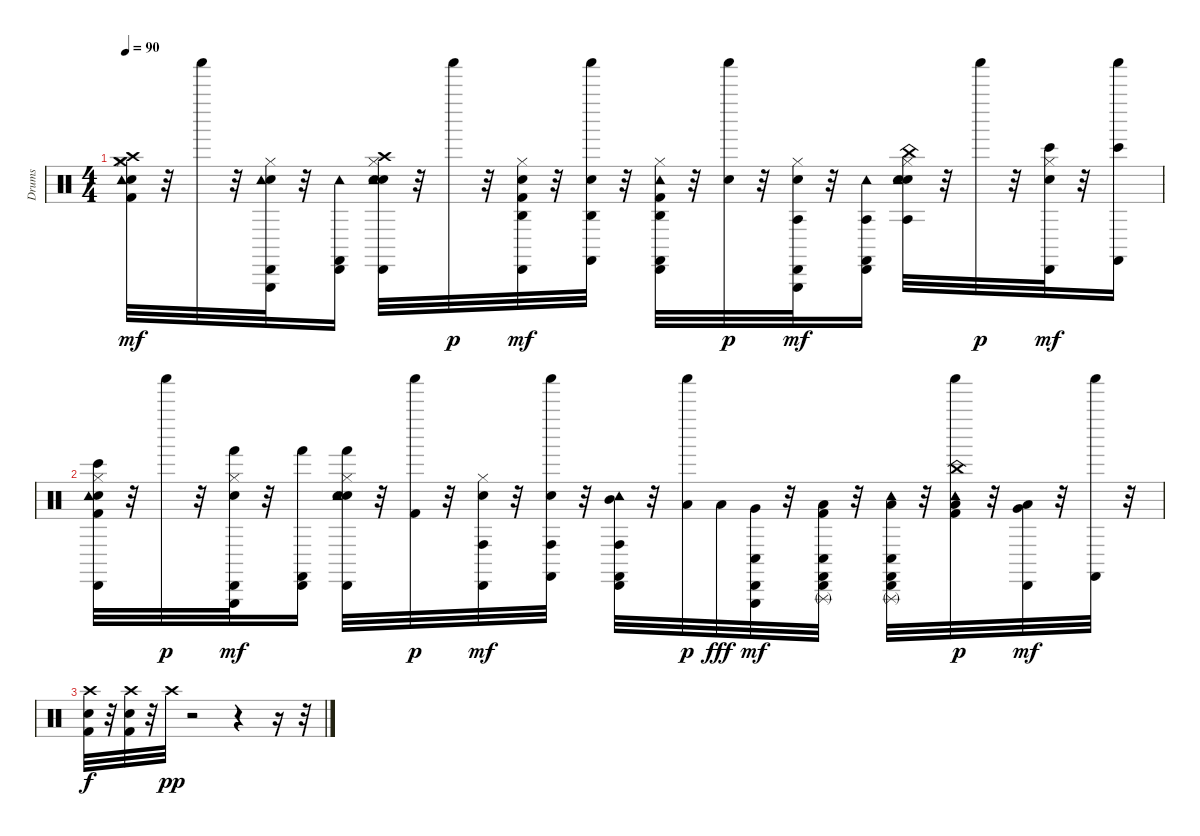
\track ("Drums" "Drums") {instrument percussion}
\staff {score}
\articulation defaults
\ts (4 4)
\tempo 90
\clef neutral
\ks c
("Hi-Hat (closed)" "Kick (hit) 2" "Snare (hit) 2" "Tambourine (hit)" "Crash high (hit)" "Crash medium (hit)").32{dy mf} r.32 "Shaker (hit)".32 r.32 ("Hi-Hat (closed)" "Snare (hit) 2" "Tambourine (hit)" "Cabasa (hit)" "Triangle (hit)").32 r.32 ("Tambourine (hit)" "Cabasa (hit)" "Castanets (hit)").16 ("Electric Snare (hit)" "Hi-Hat (closed)" "Crash high (hit)" "Snare (hit) 2" "Tambourine (hit)" "Cabasa (hit)").32 r.32 "Shaker (hit)".32{dy p} r.32 ("Hi-Hat (closed)" "Kick (hit) 2" "Snare (hit) 2" "Agogo high (hit)" "Cabasa (hit)").32{dy mf} r.32 ("Snare (hit) 2" "Agogo high (hit)" "Shaker (hit)" "Castanets (hit)").32 r.32 ("Hi-Hat (closed)" "Kick (hit) 2" "Agogo high (hit)" "Cabasa (hit)" "Tambourine (hit)" "Castanets (hit)").32 r.32 ("Snare (hit) 2" "Shaker (hit)").32{dy p} r.32 ("Hi-Hat (closed)" "Snare (hit) 2" "Agogo tow (hit)" "Cabasa (hit)" "Triangle (hit)").32{dy mf} r.32 ("Agogo tow (hit)" "Cabasa (hit)" "Tambourine (hit)" "Castanets (hit)").16 ("Electric Snare (hit)" "Hi-Hat (closed)" "China (hit)" "Snare (hit) 2" "Agogo tow (hit)" "Tambourine (hit)").32 r.32 "Shaker (hit)".32{dy p} r.32 ("Hi-Hat (closed)" "Snare (hit) 2" "Bongo High (hit)" "Cabasa (hit)").32{dy mf} r.32 ("Bongo High (hit)" "Shaker (hit)" "Castanets (hit)").16 |
("Hi-Hat (closed)" "Kick (hit) 2" "Snare (hit) 2" "Bongo High (hit)" "Cabasa (hit)" "Tambourine (hit)").32 r.32 "Shaker (hit)".32{dy p} r.32 ("Hi-Hat (closed)" "Snare (hit) 2" "Hand (hit)" "Cabasa (hit)" "Triangle (hit)").32{dy mf} r.32 ("Hand (hit)" "Cabasa (hit)" "Castanets (hit)").16 ("Electric Snare (hit)" "Hi-Hat (closed)" "Snare (hit) 2" "Hand (hit)" "Cabasa (hit)" "Tambourine (hit)").32 r.32 ("Kick (hit) 2" "Shaker (hit)").32{dy p} r.32 ("Hi-Hat (closed)" "Snare (hit) 2" "Conga high (hit)" "Cabasa (hit)").32{dy mf} r.32 ("Snare (hit) 2" "Conga high (hit)" "Shaker (hit)" "Castanets (hit)").32 r.32 ("Mid Tom (hit)" "Conga high (hit)" "Cabasa (hit)" "Tambourine (hit)" "Castanets (hit)").32 r.32 ("Low Tom (hit)" "Shaker (hit)").32{dy p} "Low Tom (hit)".32{dy fff} ("Very Low Tom (hit)" "Conga low (hit)" "Cabasa (hit)" "Triangle (hit)").32{dy mf} r.32 ("Low Floor Tom (hit)" "Kick (hit) 2" "Conga low (hit)" "Cabasa (hit)" "Castanets (hit)" "Triangle (rnute)").32 r.32 ("Low Tom (hit)" "Conga low (hit)" "Cabasa (hit)" "Tambourine (hit)" "Castanets (hit)" "Triangle (rnute)").32 r.32 ("Low Tom (hit)" "Kick (hit) 2" "China (hit)" "Tambourine (hit)" "Shaker (hit)").32{dy p} r.32 ("Very Low Tom (hit)" "Low Floor Tom (hit)" "Cabasa (hit)").32{dy mf} r.32 ("Shaker (hit)" "Castanets (hit)").32 r.32 |
("Crash high (hit)" "Kick (hit) 2" "Snare (hit) 2").32{dy f} r.32 ("Crash high (hit)" "Kick (hit) 2" "Snare (hit) 2").32 r.32 "Crash high (hit)".32{dy pp} r.2 r.4 r.16 r.32
